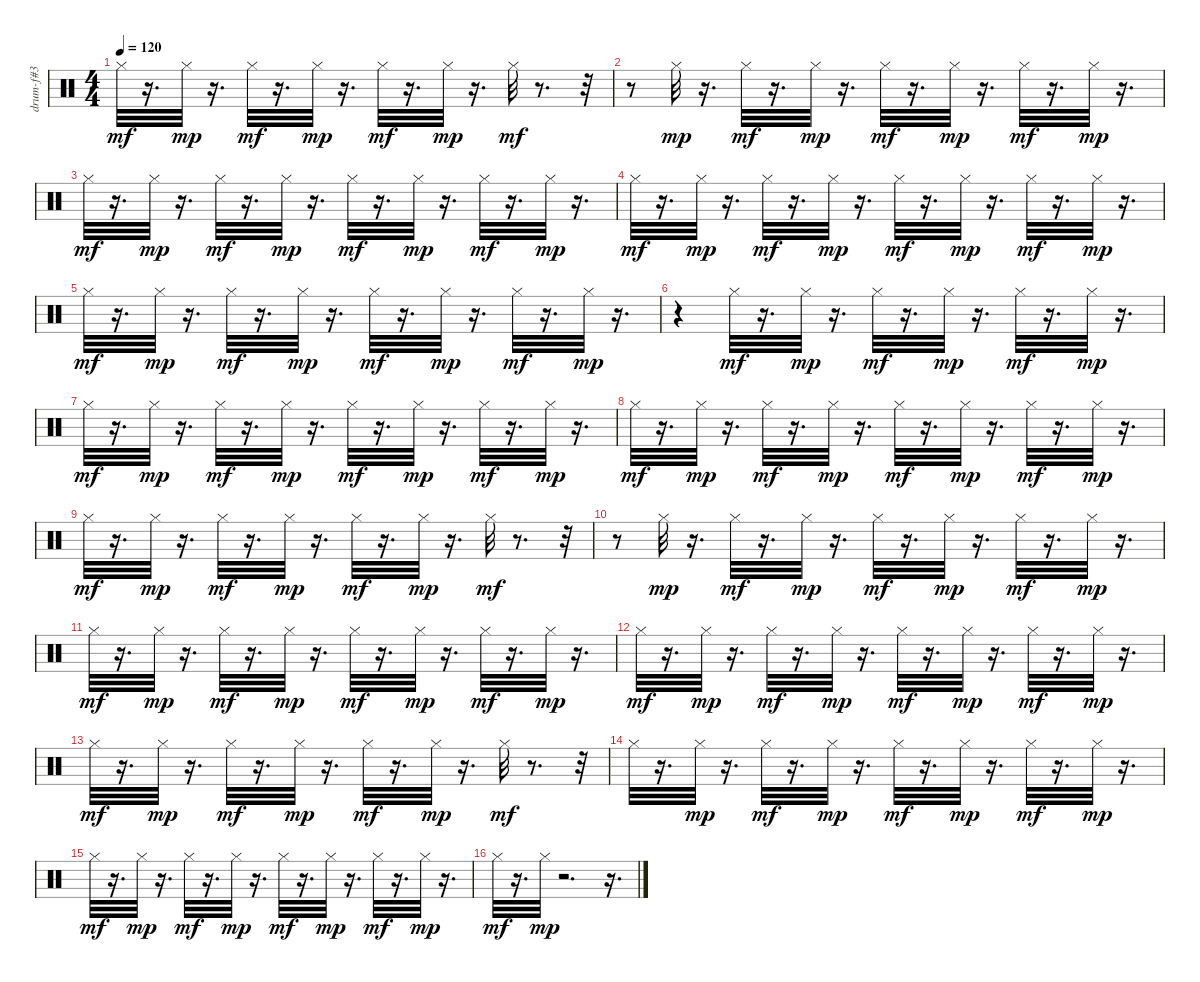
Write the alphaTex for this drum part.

\track ("drum-f#3" "drum-f#3") {instrument percussion}
\staff {score}
\articulation defaults
\ts (4 4)
\tempo 120
\clef neutral
\ks c "Hi-Hat (closed)".32{dy mf}
r.16{d} "Hi-Hat (closed)".32{dy mp} r.16{d} "Hi-Hat (closed)".32{dy mf} r.16{d} "Hi-Hat (closed)".32{dy mp} r.16{d} "Hi-Hat (closed)".32{dy mf} r.16{d} "Hi-Hat (closed)".32{dy mp} r.16{d} "Hi-Hat (closed)".32{dy mf} r.8{d} r.32 |
r.8 "Hi-Hat (closed)".32{dy mp} r.16{d} "Hi-Hat (closed)".32{dy mf} r.16{d} "Hi-Hat (closed)".32{dy mp} r.16{d} "Hi-Hat (closed)".32{dy mf} r.16{d} "Hi-Hat (closed)".32{dy mp} r.16{d} "Hi-Hat (closed)".32{dy mf} r.16{d} "Hi-Hat (closed)".32{dy mp} r.16{d} |
"Hi-Hat (closed)".32{dy mf} r.16{d} "Hi-Hat (closed)".32{dy mp} r.16{d} "Hi-Hat (closed)".32{dy mf} r.16{d} "Hi-Hat (closed)".32{dy mp} r.16{d} "Hi-Hat (closed)".32{dy mf} r.16{d} "Hi-Hat (closed)".32{dy mp} r.16{d} "Hi-Hat (closed)".32{dy mf} r.16{d} "Hi-Hat (closed)".32{dy mp} r.16{d} |
"Hi-Hat (closed)".32{dy mf} r.16{d} "Hi-Hat (closed)".32{dy mp} r.16{d} "Hi-Hat (closed)".32{dy mf} r.16{d} "Hi-Hat (closed)".32{dy mp} r.16{d} "Hi-Hat (closed)".32{dy mf} r.16{d} "Hi-Hat (closed)".32{dy mp} r.16{d} "Hi-Hat (closed)".32{dy mf} r.16{d} "Hi-Hat (closed)".32{dy mp} r.16{d} |
"Hi-Hat (closed)".32{dy mf} r.16{d} "Hi-Hat (closed)".32{dy mp} r.16{d} "Hi-Hat (closed)".32{dy mf} r.16{d} "Hi-Hat (closed)".32{dy mp} r.16{d} "Hi-Hat (closed)".32{dy mf} r.16{d} "Hi-Hat (closed)".32{dy mp} r.16{d} "Hi-Hat (closed)".32{dy mf} r.16{d} "Hi-Hat (closed)".32{dy mp} r.16{d} |
r.4 "Hi-Hat (closed)".32{dy mf} r.16{d} "Hi-Hat (closed)".32{dy mp} r.16{d} "Hi-Hat (closed)".32{dy mf} r.16{d} "Hi-Hat (closed)".32{dy mp} r.16{d} "Hi-Hat (closed)".32{dy mf} r.16{d} "Hi-Hat (closed)".32{dy mp} r.16{d} |
"Hi-Hat (closed)".32{dy mf} r.16{d} "Hi-Hat (closed)".32{dy mp} r.16{d} "Hi-Hat (closed)".32{dy mf} r.16{d} "Hi-Hat (closed)".32{dy mp} r.16{d} "Hi-Hat (closed)".32{dy mf} r.16{d} "Hi-Hat (closed)".32{dy mp} r.16{d} "Hi-Hat (closed)".32{dy mf} r.16{d} "Hi-Hat (closed)".32{dy mp} r.16{d} |
"Hi-Hat (closed)".32{dy mf} r.16{d} "Hi-Hat (closed)".32{dy mp} r.16{d} "Hi-Hat (closed)".32{dy mf} r.16{d} "Hi-Hat (closed)".32{dy mp} r.16{d} "Hi-Hat (closed)".32{dy mf} r.16{d} "Hi-Hat (closed)".32{dy mp} r.16{d} "Hi-Hat (closed)".32{dy mf} r.16{d} "Hi-Hat (closed)".32{dy mp} r.16{d} |
"Hi-Hat (closed)".32{dy mf} r.16{d} "Hi-Hat (closed)".32{dy mp} r.16{d} "Hi-Hat (closed)".32{dy mf} r.16{d} "Hi-Hat (closed)".32{dy mp} r.16{d} "Hi-Hat (closed)".32{dy mf} r.16{d} "Hi-Hat (closed)".32{dy mp} r.16{d} "Hi-Hat (closed)".32{dy mf} r.8{d} r.32 |
r.8 "Hi-Hat (closed)".32{dy mp} r.16{d} "Hi-Hat (closed)".32{dy mf} r.16{d} "Hi-Hat (closed)".32{dy mp} r.16{d} "Hi-Hat (closed)".32{dy mf} r.16{d} "Hi-Hat (closed)".32{dy mp} r.16{d} "Hi-Hat (closed)".32{dy mf} r.16{d} "Hi-Hat (closed)".32{dy mp} r.16{d} |
"Hi-Hat (closed)".32{dy mf} r.16{d} "Hi-Hat (closed)".32{dy mp} r.16{d} "Hi-Hat (closed)".32{dy mf} r.16{d} "Hi-Hat (closed)".32{dy mp} r.16{d} "Hi-Hat (closed)".32{dy mf} r.16{d} "Hi-Hat (closed)".32{dy mp} r.16{d} "Hi-Hat (closed)".32{dy mf} r.16{d} "Hi-Hat (closed)".32{dy mp} r.16{d} |
"Hi-Hat (closed)".32{dy mf} r.16{d} "Hi-Hat (closed)".32{dy mp} r.16{d} "Hi-Hat (closed)".32{dy mf} r.16{d} "Hi-Hat (closed)".32{dy mp} r.16{d} "Hi-Hat (closed)".32{dy mf} r.16{d} "Hi-Hat (closed)".32{dy mp} r.16{d} "Hi-Hat (closed)".32{dy mf} r.16{d} "Hi-Hat (closed)".32{dy mp} r.16{d} |
"Hi-Hat (closed)".32{dy mf} r.16{d} "Hi-Hat (closed)".32{dy mp} r.16{d} "Hi-Hat (closed)".32{dy mf} r.16{d} "Hi-Hat (closed)".32{dy mp} r.16{d} "Hi-Hat (closed)".32{dy mf} r.16{d} "Hi-Hat (closed)".32{dy mp} r.16{d} "Hi-Hat (closed)".32{dy mf} r.8{d} r.32 |
"Hi-Hat (closed)".32 r.16{d} "Hi-Hat (closed)".32{dy mp} r.16{d} "Hi-Hat (closed)".32{dy mf} r.16{d} "Hi-Hat (closed)".32{dy mp} r.16{d} "Hi-Hat (closed)".32{dy mf} r.16{d} "Hi-Hat (closed)".32{dy mp} r.16{d} "Hi-Hat (closed)".32{dy mf} r.16{d} "Hi-Hat (closed)".32{dy mp} r.16{d} |
"Hi-Hat (closed)".32{dy mf} r.16{d} "Hi-Hat (closed)".32{dy mp} r.16{d} "Hi-Hat (closed)".32{dy mf} r.16{d} "Hi-Hat (closed)".32{dy mp} r.16{d} "Hi-Hat (closed)".32{dy mf} r.16{d} "Hi-Hat (closed)".32{dy mp} r.16{d} "Hi-Hat (closed)".32{dy mf} r.16{d} "Hi-Hat (closed)".32{dy mp} r.16{d} |
"Hi-Hat (closed)".32{dy mf} r.16{d} "Hi-Hat (closed)".32{dy mp} r.2{d} r.16{d}
